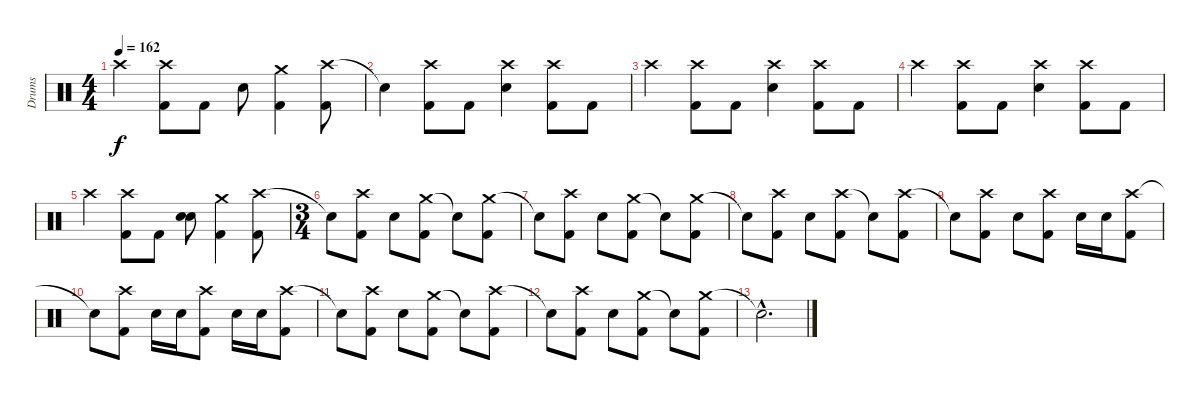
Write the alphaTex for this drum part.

\track ("Drums" "Drums") {instrument percussion}
\staff {score}
\articulation defaults
\ts (4 4)
\tempo 162
\clef neutral
\ks c "Crash high (hit)".4{dy f}
("Crash high (hit)" "Kick (hit) 2").8 "Kick (hit) 2".8 "Snare (hit) 2".8 ("Crash medium (hit)" "Kick (hit) 2").4 ("Crash high (hit)" "Kick (hit) 2").8 |
"Snare (hit)"{t}.4 ("Crash high (hit)" "Kick (hit) 2").8 "Kick (hit) 2".8 ("Crash high (hit)" "Snare (hit) 2").4 ("Crash high (hit)" "Kick (hit) 2").8 "Kick (hit) 2".8 |
"Crash high (hit)".4 ("Crash high (hit)" "Kick (hit) 2").8 "Kick (hit) 2".8 ("Crash high (hit)" "Snare (hit) 2").4 ("Crash high (hit)" "Kick (hit) 2").8 "Kick (hit) 2".8 |
"Crash high (hit)".4 ("Crash high (hit)" "Kick (hit) 2").8 "Kick (hit) 2".8 ("Crash high (hit)" "Snare (hit) 2").4 ("Crash high (hit)" "Kick (hit) 2").8 "Kick (hit) 2".8 |
"Crash high (hit)".4 ("Crash high (hit)" "Kick (hit) 2").8 "Kick (hit) 2".8 ("Snare (hit) 2" "Snare (hit) 2").8 ("Crash medium (hit)" "Kick (hit) 2").4 ("Crash high (hit)" "Kick (hit) 2").8 |
\ts (3 4)
"Snare (hit)"{t}.8 ("Crash high (hit)" "Kick (hit) 2").8 "Snare (hit) 2".8 ("Crash medium (hit)" "Kick (hit) 2").8 "Snare (hit)"{t}.8 ("Crash medium (hit)" "Kick (hit) 2").8 |
"Snare (hit)"{t}.8 ("Crash high (hit)" "Kick (hit) 2").8 "Snare (hit) 2".8 ("Crash medium (hit)" "Kick (hit) 2").8 "Snare (hit)"{t}.8 ("Crash medium (hit)" "Kick (hit) 2").8 |
"Snare (hit)"{t}.8 ("Crash high (hit)" "Kick (hit) 2").8 "Snare (hit) 2".8 ("Crash high (hit)" "Kick (hit) 2").8 "Snare (hit)"{t}.8 ("Crash high (hit)" "Kick (hit) 2").8 |
"Snare (hit)"{t}.8 ("Crash high (hit)" "Kick (hit) 2").8 "Snare (hit) 2".8 ("Crash high (hit)" "Kick (hit) 2").8 "Snare (hit) 2".16 "Snare (hit) 2".16 ("Crash high (hit)" "Kick (hit) 2").8 |
"Snare (hit)"{t}.8 ("Crash high (hit)" "Kick (hit) 2").8 "Snare (hit) 2".16 "Snare (hit) 2".16 ("Crash high (hit)" "Kick (hit) 2").8 "Snare (hit) 2".16 "Snare (hit) 2".16 ("Crash high (hit)" "Kick (hit) 2").8 |
"Snare (hit)"{t}.8 ("Crash high (hit)" "Kick (hit) 2").8 "Snare (hit) 2".8 ("Crash medium (hit)" "Kick (hit) 2").8 "Snare (hit)"{t}.8 ("Crash high (hit)" "Kick (hit) 2").8 |
"Snare (hit)"{t}.8 ("Crash high (hit)" "Kick (hit) 2").8 "Snare (hit) 2".8 ("Crash medium (hit)" "Kick (hit) 2").8 "Snare (hit)"{t}.8 ("Crash medium (hit)" "Kick (hit) 2").8 |
"Snare (hit)"{hac t}.2{d}
